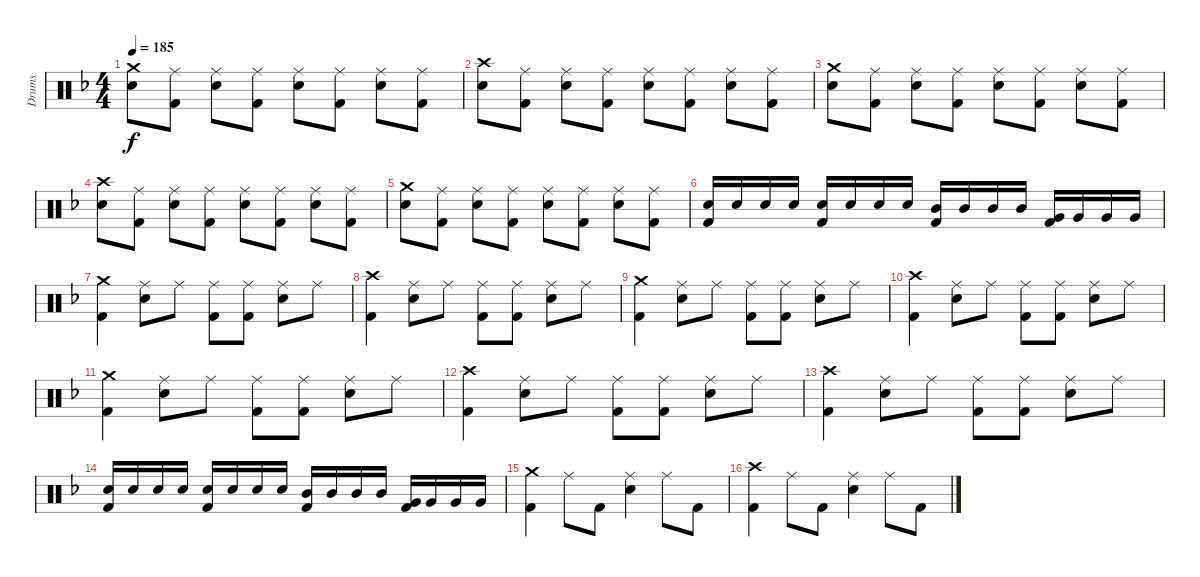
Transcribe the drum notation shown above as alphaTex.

\track ("Drums" "Drums") {instrument percussion}
\staff {score}
\articulation defaults
\ts (4 4)
\tempo 185
\clef neutral
\ks f
("Crash medium (hit)" "Snare (hit) 2").8{dy f} ("Ride (middle)" "Kick (hit) 2").8 ("Ride (middle)" "Snare (hit) 2").8 ("Ride (middle)" "Kick (hit) 2").8 ("Ride (middle)" "Snare (hit) 2").8 ("Ride (middle)" "Kick (hit) 2").8 ("Ride (middle)" "Snare (hit) 2").8 ("Ride (middle)" "Kick (hit) 2").8 |
("Crash high (hit)" "Snare (hit) 2").8 ("Ride (middle)" "Kick (hit) 2").8 ("Ride (middle)" "Snare (hit) 2").8 ("Ride (middle)" "Kick (hit) 2").8 ("Ride (middle)" "Snare (hit) 2").8 ("Ride (middle)" "Kick (hit) 2").8 ("Ride (middle)" "Snare (hit) 2").8 ("Ride (middle)" "Kick (hit) 2").8 |
("Crash medium (hit)" "Snare (hit) 2").8 ("Ride (middle)" "Kick (hit) 2").8 ("Ride (middle)" "Snare (hit) 2").8 ("Ride (middle)" "Kick (hit) 2").8 ("Ride (middle)" "Snare (hit) 2").8 ("Ride (middle)" "Kick (hit) 2").8 ("Ride (middle)" "Snare (hit) 2").8 ("Ride (middle)" "Kick (hit) 2").8 |
("Crash high (hit)" "Snare (hit) 2").8 ("Ride (middle)" "Kick (hit) 2").8 ("Ride (middle)" "Snare (hit) 2").8 ("Ride (middle)" "Kick (hit) 2").8 ("Ride (middle)" "Snare (hit) 2").8 ("Ride (middle)" "Kick (hit) 2").8 ("Ride (middle)" "Snare (hit) 2").8 ("Ride (middle)" "Kick (hit) 2").8 |
("Crash medium (hit)" "Snare (hit) 2").8 ("Ride (middle)" "Kick (hit) 2").8 ("Ride (middle)" "Snare (hit) 2").8 ("Ride (middle)" "Kick (hit) 2").8 ("Ride (middle)" "Snare (hit) 2").8 ("Ride (middle)" "Kick (hit) 2").8 ("Ride (middle)" "Snare (hit) 2").8 ("Ride (middle)" "Kick (hit) 2").8 |
("Snare (hit) 2" "Kick (hit) 2").16 "Snare (hit) 2".16 "Snare (hit) 2".16 "Snare (hit) 2".16 ("Snare (hit) 2" "Kick (hit) 2").16 "Snare (hit) 2".16 "Snare (hit) 2".16 "Snare (hit) 2".16 ("Mid Tom (hit)" "Kick (hit) 2").16 "Mid Tom (hit)".16 "Mid Tom (hit)".16 "Mid Tom (hit)".16 ("Very Low Tom (hit)" "Kick (hit) 2").16 "Very Low Tom (hit)".16 "Very Low Tom (hit)".16 "Very Low Tom (hit)".16 |
("Kick (hit) 2" "Crash medium (hit)").4 ("Snare (hit) 2" "Ride (middle)").8 "Ride (middle)".8 ("Kick (hit) 2" "Ride (middle)").8 ("Kick (hit) 2" "Ride (middle)").8 ("Snare (hit) 2" "Ride (middle)").8 "Ride (middle)".8 |
("Kick (hit) 2" "Crash high (hit)").4 ("Snare (hit) 2" "Ride (middle)").8 "Ride (middle)".8 ("Kick (hit) 2" "Ride (middle)").8 ("Kick (hit) 2" "Ride (middle)").8 ("Snare (hit) 2" "Ride (middle)").8 "Ride (middle)".8 |
("Kick (hit) 2" "Crash medium (hit)").4 ("Snare (hit) 2" "Ride (middle)").8 "Ride (middle)".8 ("Kick (hit) 2" "Ride (middle)").8 ("Kick (hit) 2" "Ride (middle)").8 ("Snare (hit) 2" "Ride (middle)").8 "Ride (middle)".8 |
("Kick (hit) 2" "Crash high (hit)").4 ("Snare (hit) 2" "Ride (middle)").8 "Ride (middle)".8 ("Kick (hit) 2" "Ride (middle)").8 ("Kick (hit) 2" "Ride (middle)").8 ("Snare (hit) 2" "Ride (middle)").8 "Ride (middle)".8 |
("Kick (hit) 2" "Crash medium (hit)").4 ("Snare (hit) 2" "Ride (middle)").8 "Ride (middle)".8 ("Kick (hit) 2" "Ride (middle)").8 ("Kick (hit) 2" "Ride (middle)").8 ("Snare (hit) 2" "Ride (middle)").8 "Ride (middle)".8 |
("Kick (hit) 2" "Crash high (hit)").4 ("Snare (hit) 2" "Ride (middle)").8 "Ride (middle)".8 ("Kick (hit) 2" "Ride (middle)").8 ("Kick (hit) 2" "Ride (middle)").8 ("Snare (hit) 2" "Ride (middle)").8 "Ride (middle)".8 |
("Kick (hit) 2" "Crash high (hit)").4 ("Snare (hit) 2" "Ride (middle)").8 "Ride (middle)".8 ("Kick (hit) 2" "Ride (middle)").8 ("Kick (hit) 2" "Ride (middle)").8 ("Snare (hit) 2" "Ride (middle)").8 "Ride (middle)".8 |
("Snare (hit) 2" "Kick (hit) 2").16 "Snare (hit) 2".16 "Snare (hit) 2".16 "Snare (hit) 2".16 ("Snare (hit) 2" "Kick (hit) 2").16 "Snare (hit) 2".16 "Snare (hit) 2".16 "Snare (hit) 2".16 ("Mid Tom (hit)" "Kick (hit) 2").16 "Mid Tom (hit)".16 "Mid Tom (hit)".16 "Mid Tom (hit)".16 ("Very Low Tom (hit)" "Kick (hit) 2").16 "Very Low Tom (hit)".16 "Very Low Tom (hit)".16 "Very Low Tom (hit)".16 |
("Crash medium (hit)" "Kick (hit) 2").4 "Ride (middle)".8 "Kick (hit) 2".8 ("Ride (middle)" "Snare (hit) 2").4 "Ride (middle)".8 "Kick (hit) 2".8 |
("Crash high (hit)" "Kick (hit) 2").4 "Ride (middle)".8 "Kick (hit) 2".8 ("Ride (middle)" "Snare (hit) 2").4 "Ride (middle)".8 "Kick (hit) 2".8
